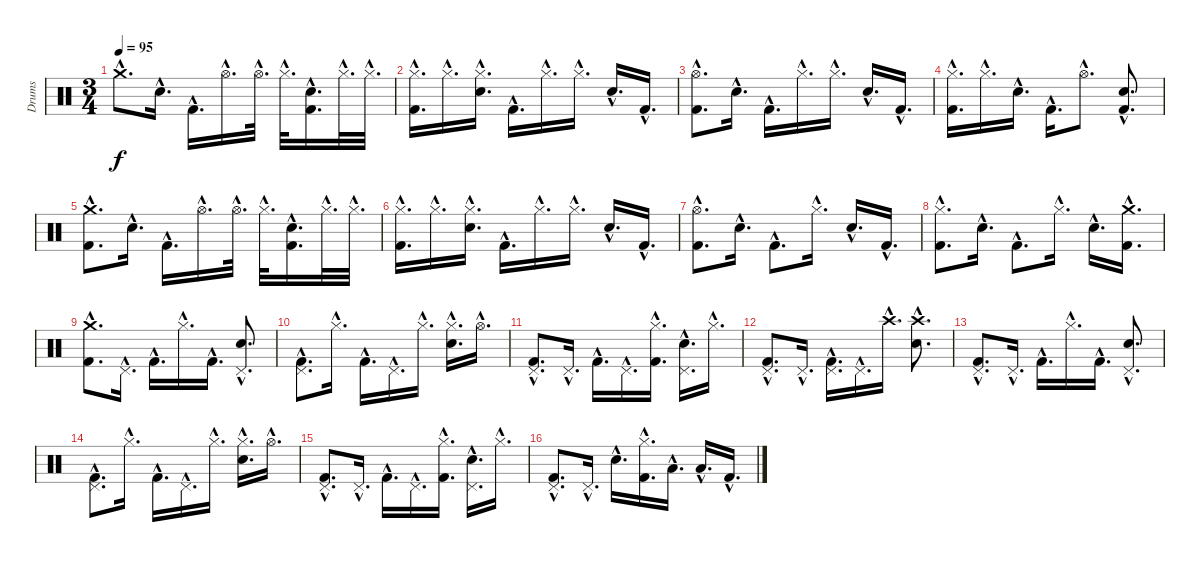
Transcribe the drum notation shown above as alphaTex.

\track ("Drums" "Drums") {instrument percussion}
\staff {score}
\articulation defaults
\ts (3 4)
\tempo 95
\clef neutral
\ks c "Crash medium (hit)"{hac}.8{d dy f} "Electric Snare (hit)"{hac}.16{d} "Kick (hit) 2"{hac}.16{d} "Hi-Hat (open)"{hac}.16{d} "Hi-Hat (open)"{hac}.32{d} "Hi-Hat (closed)"{hac}.32{d}
("Kick (hit) 2"{hac} "Electric Snare (hit)"{hac}).16{d} "Hi-Hat (closed)"{hac}.32{d} "Hi-Hat (closed)"{hac}.32{d} |
("Kick (hit) 2"{hac} "Hi-Hat (closed)"{hac}).16{d} "Hi-Hat (closed)"{hac}.16{d} ("Hi-Hat (closed)"{hac} "Electric Snare (hit)"{hac}).16{d} "Kick (hit) 2"{hac}.16{d} "Hi-Hat (closed)"{hac}.16{d} "Hi-Hat (closed)"{hac}.16{d} "Electric Snare (hit)"{hac}.16{d} "Kick (hit) 2"{hac}.16{d} |
("Kick (hit) 2"{hac} "Hi-Hat (open)"{hac}).8{d} "Electric Snare (hit)"{hac}.16{d} "Kick (hit) 2"{hac}.16{d} "Hi-Hat (closed)"{hac}.16{d} "Hi-Hat (closed)"{hac}.16{d} "Electric Snare (hit)"{hac}.16{d} "Kick (hit) 2"{hac}.16{d} |
("Kick (hit) 2"{hac} "Hi-Hat (closed)"{hac}).16{d} "Hi-Hat (closed)"{hac}.16{d} "Electric Snare (hit)"{hac}.16{d} "Kick (hit) 2"{hac}.16{d} "Hi-Hat (open)"{hac}.8{d} ("Kick (hit) 2"{hac} "Electric Snare (hit)"{hac}).8{d} |
("Kick (hit) 2"{hac} "Crash medium (hit)"{hac}).8{d} "Electric Snare (hit)"{hac}.16{d} "Kick (hit) 2"{hac}.16{d} "Hi-Hat (open)"{hac}.16{d} "Hi-Hat (open)"{hac}.32{d} "Hi-Hat (closed)"{hac}.32{d} ("Kick (hit) 2"{hac} "Electric Snare (hit)"{hac}).16{d} "Hi-Hat (closed)"{hac}.32{d} "Hi-Hat (closed)"{hac}.32{d} |
("Kick (hit) 2"{hac} "Hi-Hat (closed)"{hac}).16{d} "Hi-Hat (closed)"{hac}.16{d} ("Hi-Hat (closed)"{hac} "Electric Snare (hit)"{hac}).16{d} "Kick (hit) 2"{hac}.16{d} "Hi-Hat (closed)"{hac}.16{d} "Hi-Hat (closed)"{hac}.16{d} "Electric Snare (hit)"{hac}.16{d} "Kick (hit) 2"{hac}.16{d} |
("Kick (hit) 2"{hac} "Hi-Hat (open)"{hac}).8{d} "Electric Snare (hit)"{hac}.16{d} "Kick (hit) 2"{hac}.8{d} "Hi-Hat (closed)"{hac}.16{d} "Electric Snare (hit)"{hac}.16{d} "Kick (hit) 2"{hac}.16{d} |
("Kick (hit) 2"{hac} "Hi-Hat (closed)"{hac}).8{d} "Electric Snare (hit)"{hac}.16{d} "Kick (hit) 2"{hac}.8{d} "Hi-Hat (closed)"{hac}.16{d} "Electric Snare (hit)"{hac}.16{d} ("Kick (hit) 2"{hac} "Crash medium (hit)"{hac}).16{d} |
("Kick (hit) 2"{hac} "Crash medium (hit)"{hac}).8{d} "Pedal Hi-Hat (hit)"{hac}.16{d} "Kick (hit) 2"{hac}.16{d} "Hi-Hat (closed)"{hac}.16{d} "Kick (hit) 2"{hac}.16{d} ("Pedal Hi-Hat (hit)"{hac} "Electric Snare (hit)"{hac}).8{d} |
("Kick (hit) 2"{hac} "Pedal Hi-Hat (hit)"{hac}).8{d} "Hi-Hat (closed)"{hac}.16{d} "Kick (hit) 2"{hac}.16{d} "Pedal Hi-Hat (hit)"{hac}.16{d} "Hi-Hat (closed)"{hac}.16{d} ("Hi-Hat (closed)"{hac} "Electric Snare (hit)"{hac}).16{d} "Hi-Hat (open)"{hac}.16{d} |
("Kick (hit) 2"{hac} "Pedal Hi-Hat (hit)"{hac}).8{d} "Pedal Hi-Hat (hit)"{hac}.16{d} "Kick (hit) 2"{hac}.16{d} "Pedal Hi-Hat (hit)"{hac}.16{d} ("Kick (hit) 2"{hac} "Hi-Hat (closed)"{hac}).16{d} ("Pedal Hi-Hat (hit)"{hac} "Electric Snare (hit)"{hac}).16{d} "Hi-Hat (closed)"{hac}.16{d} |
("Kick (hit) 2"{hac} "Pedal Hi-Hat (hit)"{hac}).8{d} "Pedal Hi-Hat (hit)"{hac}.16{d} ("Kick (hit) 2"{hac} "Pedal Hi-Hat (hit)"{hac}).16{d} "Pedal Hi-Hat (hit)"{hac}.16{d} "Crash high (hit)"{hac}.16{d} ("Crash high (hit)"{hac} "Electric Snare (hit)"{hac}).8{d} |
("Kick (hit) 2"{hac} "Pedal Hi-Hat (hit)"{hac}).8{d} "Pedal Hi-Hat (hit)"{hac}.16{d} "Kick (hit) 2"{hac}.16{d} "Hi-Hat (closed)"{hac}.16{d} "Kick (hit) 2"{hac}.16{d} ("Pedal Hi-Hat (hit)"{hac} "Electric Snare (hit)"{hac}).8{d} |
("Kick (hit) 2"{hac} "Pedal Hi-Hat (hit)"{hac}).8{d} "Hi-Hat (closed)"{hac}.16{d} "Kick (hit) 2"{hac}.16{d} "Pedal Hi-Hat (hit)"{hac}.16{d} "Hi-Hat (closed)"{hac}.16{d} ("Hi-Hat (closed)"{hac} "Electric Snare (hit)"{hac}).16{d} "Hi-Hat (open)"{hac}.16{d} |
("Kick (hit) 2"{hac} "Pedal Hi-Hat (hit)"{hac}).8{d} "Pedal Hi-Hat (hit)"{hac}.16{d} "Kick (hit) 2"{hac}.16{d} "Pedal Hi-Hat (hit)"{hac}.16{d} ("Kick (hit) 2"{hac} "Hi-Hat (closed)"{hac}).16{d} ("Pedal Hi-Hat (hit)"{hac} "Electric Snare (hit)"{hac}).16{d} "Hi-Hat (closed)"{hac}.16{d} |
("Kick (hit) 2"{hac} "Pedal Hi-Hat (hit)"{hac}).8{d} "Pedal Hi-Hat (hit)"{hac}.16{d} "Electric Snare (hit)"{hac}.16{d} ("Kick (hit) 2"{hac} "Hi-Hat (closed)"{hac}).16{d} "Low Tom (hit)"{hac}.16{d} "Low Tom (hit)"{hac}.16{d} "Kick (hit) 2"{hac}.16{d}
